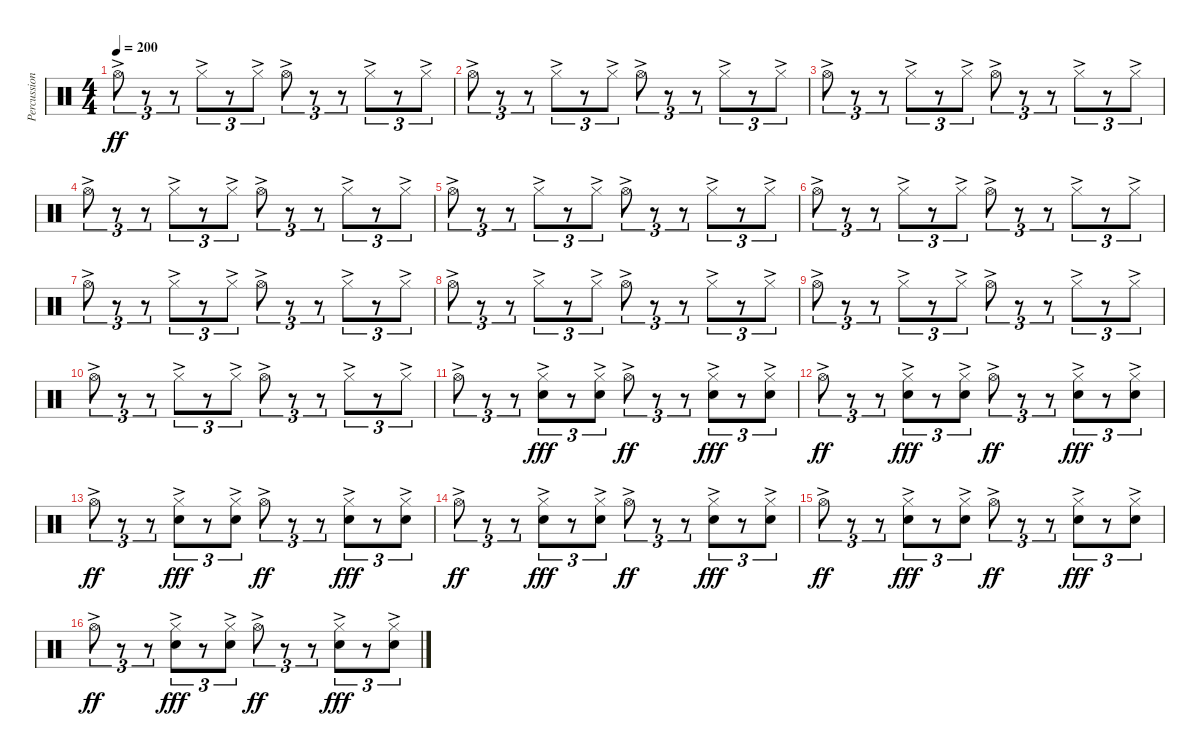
\track ("Percussion" "Percussion") {instrument percussion}
\staff {score}
\articulation defaults
\ts (4 4)
\tempo 200
\clef neutral
\ks c "Hi-Hat (open)"{ac}.8{tu (3 2) dy ff}
r.8{tu (3 2)} r.8{tu (3 2)} "Hi-Hat (closed)"{ac}.8{tu (3 2)} r.8{tu (3 2)} "Hi-Hat (closed)"{ac}.8{tu (3 2)} "Hi-Hat (open)"{ac}.8{tu (3 2)} r.8{tu (3 2)} r.8{tu (3 2)} "Hi-Hat (closed)"{ac}.8{tu (3 2)} r.8{tu (3 2)} "Hi-Hat (closed)"{ac}.8{tu (3 2)} |
"Hi-Hat (open)"{ac}.8{tu (3 2)} r.8{tu (3 2)} r.8{tu (3 2)} "Hi-Hat (closed)"{ac}.8{tu (3 2)} r.8{tu (3 2)} "Hi-Hat (closed)"{ac}.8{tu (3 2)} "Hi-Hat (open)"{ac}.8{tu (3 2)} r.8{tu (3 2)} r.8{tu (3 2)} "Hi-Hat (closed)"{ac}.8{tu (3 2)} r.8{tu (3 2)} "Hi-Hat (closed)"{ac}.8{tu (3 2)} |
"Hi-Hat (open)"{ac}.8{tu (3 2)} r.8{tu (3 2)} r.8{tu (3 2)} "Hi-Hat (closed)"{ac}.8{tu (3 2)} r.8{tu (3 2)} "Hi-Hat (closed)"{ac}.8{tu (3 2)} "Hi-Hat (open)"{ac}.8{tu (3 2)} r.8{tu (3 2)} r.8{tu (3 2)} "Hi-Hat (closed)"{ac}.8{tu (3 2)} r.8{tu (3 2)} "Hi-Hat (closed)"{ac}.8{tu (3 2)} |
"Hi-Hat (open)"{ac}.8{tu (3 2)} r.8{tu (3 2)} r.8{tu (3 2)} "Hi-Hat (closed)"{ac}.8{tu (3 2)} r.8{tu (3 2)} "Hi-Hat (closed)"{ac}.8{tu (3 2)} "Hi-Hat (open)"{ac}.8{tu (3 2)} r.8{tu (3 2)} r.8{tu (3 2)} "Hi-Hat (closed)"{ac}.8{tu (3 2)} r.8{tu (3 2)} "Hi-Hat (closed)"{ac}.8{tu (3 2)} |
"Hi-Hat (open)"{ac}.8{tu (3 2)} r.8{tu (3 2)} r.8{tu (3 2)} "Hi-Hat (closed)"{ac}.8{tu (3 2)} r.8{tu (3 2)} "Hi-Hat (closed)"{ac}.8{tu (3 2)} "Hi-Hat (open)"{ac}.8{tu (3 2)} r.8{tu (3 2)} r.8{tu (3 2)} "Hi-Hat (closed)"{ac}.8{tu (3 2)} r.8{tu (3 2)} "Hi-Hat (closed)"{ac}.8{tu (3 2)} |
"Hi-Hat (open)"{ac}.8{tu (3 2)} r.8{tu (3 2)} r.8{tu (3 2)} "Hi-Hat (closed)"{ac}.8{tu (3 2)} r.8{tu (3 2)} "Hi-Hat (closed)"{ac}.8{tu (3 2)} "Hi-Hat (open)"{ac}.8{tu (3 2)} r.8{tu (3 2)} r.8{tu (3 2)} "Hi-Hat (closed)"{ac}.8{tu (3 2)} r.8{tu (3 2)} "Hi-Hat (closed)"{ac}.8{tu (3 2)} |
"Hi-Hat (open)"{ac}.8{tu (3 2)} r.8{tu (3 2)} r.8{tu (3 2)} "Hi-Hat (closed)"{ac}.8{tu (3 2)} r.8{tu (3 2)} "Hi-Hat (closed)"{ac}.8{tu (3 2)} "Hi-Hat (open)"{ac}.8{tu (3 2)} r.8{tu (3 2)} r.8{tu (3 2)} "Hi-Hat (closed)"{ac}.8{tu (3 2)} r.8{tu (3 2)} "Hi-Hat (closed)"{ac}.8{tu (3 2)} |
"Hi-Hat (open)"{ac}.8{tu (3 2)} r.8{tu (3 2)} r.8{tu (3 2)} "Hi-Hat (closed)"{ac}.8{tu (3 2)} r.8{tu (3 2)} "Hi-Hat (closed)"{ac}.8{tu (3 2)} "Hi-Hat (open)"{ac}.8{tu (3 2)} r.8{tu (3 2)} r.8{tu (3 2)} "Hi-Hat (closed)"{ac}.8{tu (3 2)} r.8{tu (3 2)} "Hi-Hat (closed)"{ac}.8{tu (3 2)} |
"Hi-Hat (open)"{ac}.8{tu (3 2)} r.8{tu (3 2)} r.8{tu (3 2)} "Hi-Hat (closed)"{ac}.8{tu (3 2)} r.8{tu (3 2)} "Hi-Hat (closed)"{ac}.8{tu (3 2)} "Hi-Hat (open)"{ac}.8{tu (3 2)} r.8{tu (3 2)} r.8{tu (3 2)} "Hi-Hat (closed)"{ac}.8{tu (3 2)} r.8{tu (3 2)} "Hi-Hat (closed)"{ac}.8{tu (3 2)} |
"Hi-Hat (open)"{ac}.8{tu (3 2)} r.8{tu (3 2)} r.8{tu (3 2)} "Hi-Hat (closed)"{ac}.8{tu (3 2)} r.8{tu (3 2)} "Hi-Hat (closed)"{ac}.8{tu (3 2)} "Hi-Hat (open)"{ac}.8{tu (3 2)} r.8{tu (3 2)} r.8{tu (3 2)} "Hi-Hat (closed)"{ac}.8{tu (3 2)} r.8{tu (3 2)} "Hi-Hat (closed)"{ac}.8{tu (3 2)} |
"Hi-Hat (open)"{ac}.8{tu (3 2)} r.8{tu (3 2)} r.8{tu (3 2)} ("Hi-Hat (closed)"{ac} "Snare (hit) 2"{ac}).8{tu (3 2) dy fff} r.8{tu (3 2)} ("Hi-Hat (closed)"{ac} "Snare (hit) 2"{ac}).8{tu (3 2)} "Hi-Hat (open)"{ac}.8{tu (3 2) dy ff} r.8{tu (3 2)} r.8{tu (3 2)} ("Hi-Hat (closed)"{ac} "Snare (hit) 2"{ac}).8{tu (3 2) dy fff} r.8{tu (3 2)} ("Hi-Hat (closed)"{ac} "Snare (hit) 2"{ac}).8{tu (3 2)} |
"Hi-Hat (open)"{ac}.8{tu (3 2) dy ff} r.8{tu (3 2)} r.8{tu (3 2)} ("Hi-Hat (closed)"{ac} "Snare (hit) 2"{ac}).8{tu (3 2) dy fff} r.8{tu (3 2)} ("Hi-Hat (closed)"{ac} "Snare (hit) 2"{ac}).8{tu (3 2)} "Hi-Hat (open)"{ac}.8{tu (3 2) dy ff} r.8{tu (3 2)} r.8{tu (3 2)} ("Hi-Hat (closed)"{ac} "Snare (hit) 2"{ac}).8{tu (3 2) dy fff} r.8{tu (3 2)} ("Hi-Hat (closed)"{ac} "Snare (hit) 2"{ac}).8{tu (3 2)} |
"Hi-Hat (open)"{ac}.8{tu (3 2) dy ff} r.8{tu (3 2)} r.8{tu (3 2)} ("Hi-Hat (closed)"{ac} "Snare (hit) 2"{ac}).8{tu (3 2) dy fff} r.8{tu (3 2)} ("Hi-Hat (closed)"{ac} "Snare (hit) 2"{ac}).8{tu (3 2)} "Hi-Hat (open)"{ac}.8{tu (3 2) dy ff} r.8{tu (3 2)} r.8{tu (3 2)} ("Hi-Hat (closed)"{ac} "Snare (hit) 2"{ac}).8{tu (3 2) dy fff} r.8{tu (3 2)} ("Hi-Hat (closed)"{ac} "Snare (hit) 2"{ac}).8{tu (3 2)} |
"Hi-Hat (open)"{ac}.8{tu (3 2) dy ff} r.8{tu (3 2)} r.8{tu (3 2)} ("Hi-Hat (closed)"{ac} "Snare (hit) 2"{ac}).8{tu (3 2) dy fff} r.8{tu (3 2)} ("Hi-Hat (closed)"{ac} "Snare (hit) 2"{ac}).8{tu (3 2)} "Hi-Hat (open)"{ac}.8{tu (3 2) dy ff} r.8{tu (3 2)} r.8{tu (3 2)} ("Hi-Hat (closed)"{ac} "Snare (hit) 2"{ac}).8{tu (3 2) dy fff} r.8{tu (3 2)} ("Hi-Hat (closed)"{ac} "Snare (hit) 2"{ac}).8{tu (3 2)} |
"Hi-Hat (open)"{ac}.8{tu (3 2) dy ff} r.8{tu (3 2)} r.8{tu (3 2)} ("Hi-Hat (closed)"{ac} "Snare (hit) 2"{ac}).8{tu (3 2) dy fff} r.8{tu (3 2)} ("Hi-Hat (closed)"{ac} "Snare (hit) 2"{ac}).8{tu (3 2)} "Hi-Hat (open)"{ac}.8{tu (3 2) dy ff} r.8{tu (3 2)} r.8{tu (3 2)} ("Hi-Hat (closed)"{ac} "Snare (hit) 2"{ac}).8{tu (3 2) dy fff} r.8{tu (3 2)} ("Hi-Hat (closed)"{ac} "Snare (hit) 2"{ac}).8{tu (3 2)} |
"Hi-Hat (open)"{ac}.8{tu (3 2) dy ff} r.8{tu (3 2)} r.8{tu (3 2)} ("Hi-Hat (closed)"{ac} "Snare (hit) 2"{ac}).8{tu (3 2) dy fff} r.8{tu (3 2)} ("Hi-Hat (closed)"{ac} "Snare (hit) 2"{ac}).8{tu (3 2)} "Hi-Hat (open)"{ac}.8{tu (3 2) dy ff} r.8{tu (3 2)} r.8{tu (3 2)} ("Hi-Hat (closed)"{ac} "Snare (hit) 2"{ac}).8{tu (3 2) dy fff} r.8{tu (3 2)} ("Hi-Hat (closed)"{ac} "Snare (hit) 2"{ac}).8{tu (3 2)}
